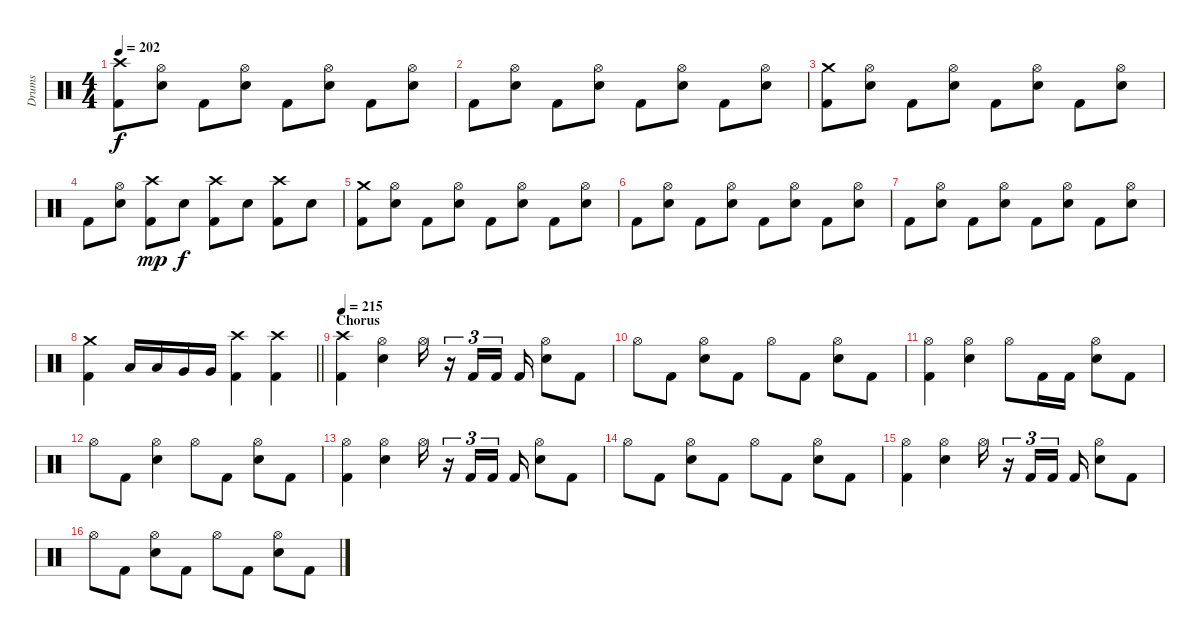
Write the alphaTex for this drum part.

\track ("Drums" "Drums") {instrument percussion}
\staff {score}
\articulation defaults
\ts (4 4)
\tempo 202
\clef neutral
\ks c
("Crash high (hit)" "Kick (hit) 2").8{dy f} ("Hi-Hat (open)" "Snare (hit) 2").8 "Kick (hit) 2".8 ("Hi-Hat (open)" "Snare (hit) 2").8 "Kick (hit) 2".8 ("Hi-Hat (open)" "Snare (hit) 2").8 "Kick (hit) 2".8 ("Hi-Hat (open)" "Snare (hit) 2").8 |
"Kick (hit) 2".8 ("Hi-Hat (open)" "Snare (hit) 2").8 "Kick (hit) 2".8 ("Hi-Hat (open)" "Snare (hit) 2").8 "Kick (hit) 2".8 ("Hi-Hat (open)" "Snare (hit) 2").8 "Kick (hit) 2".8 ("Hi-Hat (open)" "Snare (hit) 2").8 |
("Crash medium (hit)" "Kick (hit) 2").8 ("Hi-Hat (open)" "Snare (hit) 2").8 "Kick (hit) 2".8 ("Hi-Hat (open)" "Snare (hit) 2").8 "Kick (hit) 2".8 ("Hi-Hat (open)" "Snare (hit) 2").8 "Kick (hit) 2".8 ("Hi-Hat (open)" "Snare (hit) 2").8 |
"Kick (hit) 2".8 ("Hi-Hat (open)" "Snare (hit) 2").8 ("Crash high (hit)" "Kick (hit) 2").8{dy mp} "Snare (hit) 2".8{dy f} ("Crash high (hit)" "Kick (hit) 2").8 "Snare (hit) 2".8 ("Crash high (hit)" "Kick (hit) 2").8 "Snare (hit) 2".8 |
("Crash medium (hit)" "Kick (hit) 2").8 ("Hi-Hat (open)" "Snare (hit) 2").8 "Kick (hit) 2".8 ("Hi-Hat (open)" "Snare (hit) 2").8 "Kick (hit) 2".8 ("Hi-Hat (open)" "Snare (hit) 2").8 "Kick (hit) 2".8 ("Hi-Hat (open)" "Snare (hit) 2").8 |
"Kick (hit) 2".8 ("Hi-Hat (open)" "Snare (hit) 2").8 "Kick (hit) 2".8 ("Hi-Hat (open)" "Snare (hit) 2").8 "Kick (hit) 2".8 ("Hi-Hat (open)" "Snare (hit) 2").8 "Kick (hit) 2".8 ("Hi-Hat (open)" "Snare (hit) 2").8 |
"Kick (hit) 2".8 ("Hi-Hat (open)" "Snare (hit) 2").8 "Kick (hit) 2".8 ("Hi-Hat (open)" "Snare (hit) 2").8 "Kick (hit) 2".8 ("Hi-Hat (open)" "Snare (hit) 2").8 "Kick (hit) 2".8 ("Hi-Hat (open)" "Snare (hit) 2").8 |
\barLineRight lightlight
("Crash medium (hit)" "Kick (hit) 2").4 "Low Tom (hit)".16 "Low Tom (hit)".16 "Very Low Tom (hit)".16 "Very Low Tom (hit)".16 ("Crash high (hit)" "Kick (hit) 2").4 ("Crash high (hit)" "Kick (hit) 2").4 |
\section ("" "Chorus")
\tempo 215
("Crash high (hit)" "Kick (hit) 2").4 ("Hi-Hat (open)" "Snare (hit) 2").4 "Hi-Hat (open)".16 r.16{tu (3 2)} "Kick (hit) 2".16{tu (3 2)} "Kick (hit) 2".16{tu (3 2) beam splitsecondary} "Kick (hit) 2".16 ("Hi-Hat (open)" "Snare (hit) 2").8 "Kick (hit) 2".8 |
"Hi-Hat (open)".8 "Kick (hit) 2".8 ("Hi-Hat (open)" "Snare (hit) 2").8 "Kick (hit) 2".8 "Hi-Hat (open)".8 "Kick (hit) 2".8 ("Hi-Hat (open)" "Snare (hit) 2").8 "Kick (hit) 2".8 |
("Hi-Hat (open)" "Kick (hit) 2").4 ("Hi-Hat (open)" "Snare (hit) 2").4 "Hi-Hat (open)".8 "Kick (hit) 2".16 "Kick (hit) 2".16 ("Hi-Hat (open)" "Snare (hit) 2").8 "Kick (hit) 2".8 |
"Hi-Hat (open)".8 "Kick (hit) 2".8 ("Hi-Hat (open)" "Snare (hit) 2").4 "Hi-Hat (open)".8 "Kick (hit) 2".8 ("Hi-Hat (open)" "Snare (hit) 2").8 "Kick (hit) 2".8 |
("Hi-Hat (open)" "Kick (hit) 2").4 ("Hi-Hat (open)" "Snare (hit) 2").4 "Hi-Hat (open)".16 r.16{tu (3 2)} "Kick (hit) 2".16{tu (3 2)} "Kick (hit) 2".16{tu (3 2) beam splitsecondary} "Kick (hit) 2".16 ("Hi-Hat (open)" "Snare (hit) 2").8 "Kick (hit) 2".8 |
"Hi-Hat (open)".8 "Kick (hit) 2".8 ("Hi-Hat (open)" "Snare (hit) 2").8 "Kick (hit) 2".8 "Hi-Hat (open)".8 "Kick (hit) 2".8 ("Hi-Hat (open)" "Snare (hit) 2").8 "Kick (hit) 2".8 |
("Hi-Hat (open)" "Kick (hit) 2").4 ("Hi-Hat (open)" "Snare (hit) 2").4 "Hi-Hat (open)".16 r.16{tu (3 2)} "Kick (hit) 2".16{tu (3 2)} "Kick (hit) 2".16{tu (3 2) beam splitsecondary} "Kick (hit) 2".16 ("Hi-Hat (open)" "Snare (hit) 2").8 "Kick (hit) 2".8 |
"Hi-Hat (open)".8 "Kick (hit) 2".8 ("Hi-Hat (open)" "Snare (hit) 2").8 "Kick (hit) 2".8 "Hi-Hat (open)".8 "Kick (hit) 2".8 ("Hi-Hat (open)" "Snare (hit) 2").8 "Kick (hit) 2".8
